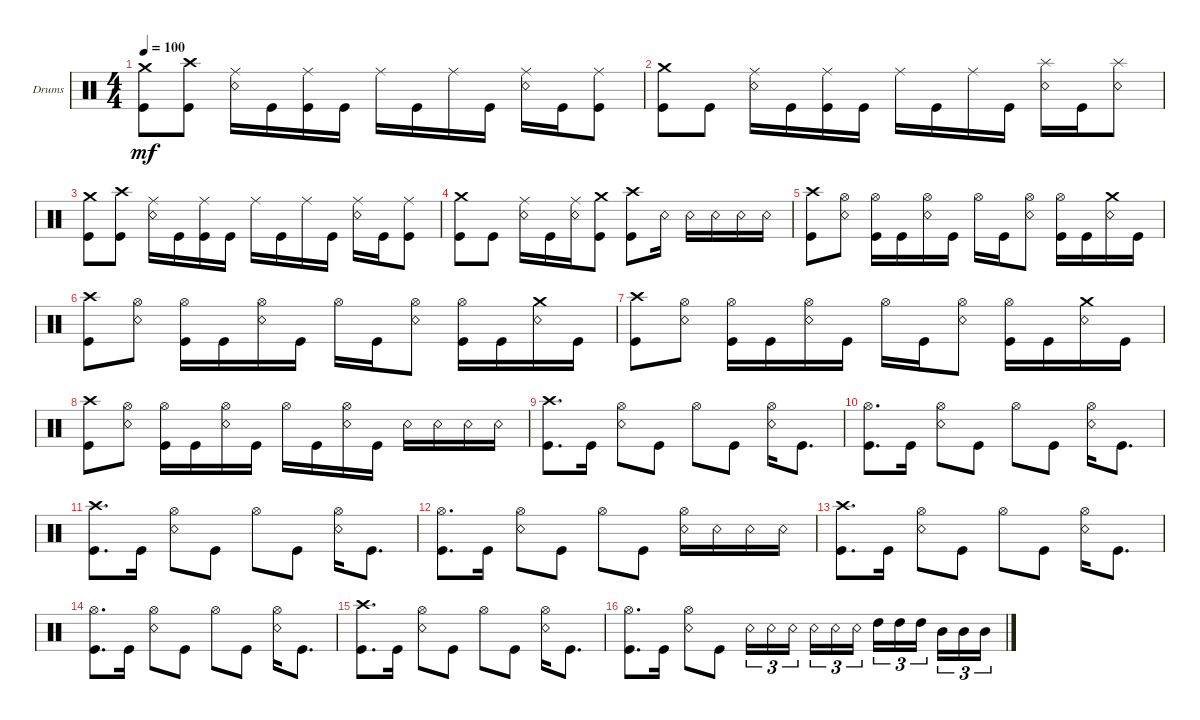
\defaultSystemsLayout 4
\bracketExtendMode groupsimilarinstruments
\firstSystemTrackNameOrientation horizontal
\otherSystemsTrackNameOrientation horizontal
\track ("Drumkit" "Drums") {instrument percussion}
\staff {score}
\articulation defaults
\ts (4 4)
\tempo 100
\clef neutral
\ks c
("Kick (hit)" "Crash medium (hit)").8{dy mf} ("Kick (hit)" "Crash high (hit)").8 ("Snare (rim shot)" "Ride (middle)").16 "Kick (hit)".16 ("Kick (hit)" "Ride (middle)").16 "Kick (hit)".16 "Ride (middle)".16 "Kick (hit)".16 "Ride (middle)".16 "Kick (hit)".16 ("Snare (rim shot)" "Ride (middle)").16 "Kick (hit)".16 ("Kick (hit)" "Ride (middle)").8 |
("Kick (hit)" "Crash medium (hit)").8 "Kick (hit)".8 ("Snare (rim shot)" "Ride (middle)").16 "Kick (hit)".16 ("Kick (hit)" "Ride (middle)").16 "Kick (hit)".16 "Ride (middle)".16 "Kick (hit)".16 "Ride (middle)".16 "Kick (hit)".16 ("Snare (rim shot)" "Splash (hit)").16 "Kick (hit)".16 ("Snare (rim shot)" "Splash (hit)").8 |
("Kick (hit)" "Crash medium (hit)").8 ("Kick (hit)" "Crash high (hit)").8 ("Snare (rim shot)" "Ride (middle)").16 "Kick (hit)".16 ("Kick (hit)" "Ride (middle)").16 "Kick (hit)".16 "Ride (middle)".16 "Kick (hit)".16 "Ride (middle)".16 "Kick (hit)".16 ("Snare (rim shot)" "Ride (middle)").16 "Kick (hit)".16 ("Kick (hit)" "Ride (middle)").8 |
("Kick (hit)" "Crash medium (hit)").8 "Kick (hit)".8 ("Snare (rim shot)" "Ride (middle)").16 "Kick (hit)".16 ("Snare (rim shot)" "Ride (middle)").16 ("Kick (hit)" "Crash medium (hit)").8 ("Kick (hit)" "Crash high (hit)").8 "Snare (rim shot)".16 "Snare (rim shot)".16 "Snare (rim shot)".16 "Snare (rim shot)".16 "Snare (rim shot)".16 |
("Kick (hit)" "Crash high (hit)").8 ("Snare (rim shot)" "Hi-Hat (open)").8 ("Kick (hit)" "Hi-Hat (open)").16 "Kick (hit)".16 ("Snare (rim shot)" "Hi-Hat (open)").16 "Kick (hit)".16 "Hi-Hat (open)".16 "Kick (hit)".16 ("Snare (rim shot)" "Hi-Hat (open)").8 ("Kick (hit)" "Hi-Hat (open)").16 "Kick (hit)".16 ("Snare (rim shot)" "Crash medium (hit)").16 "Kick (hit)".16 |
("Kick (hit)" "Crash high (hit)").8 ("Snare (rim shot)" "Hi-Hat (open)").8 ("Kick (hit)" "Hi-Hat (open)").16 "Kick (hit)".16 ("Snare (rim shot)" "Hi-Hat (open)").16 "Kick (hit)".16 "Hi-Hat (open)".16 "Kick (hit)".16 ("Snare (rim shot)" "Hi-Hat (open)").8 ("Kick (hit)" "Hi-Hat (open)").16 "Kick (hit)".16 ("Snare (rim shot)" "Crash medium (hit)").16 "Kick (hit)".16 |
("Kick (hit)" "Crash high (hit)").8 ("Snare (rim shot)" "Hi-Hat (open)").8 ("Kick (hit)" "Hi-Hat (open)").16 "Kick (hit)".16 ("Snare (rim shot)" "Hi-Hat (open)").16 "Kick (hit)".16 "Hi-Hat (open)".16 "Kick (hit)".16 ("Snare (rim shot)" "Hi-Hat (open)").8 ("Kick (hit)" "Hi-Hat (open)").16 "Kick (hit)".16 ("Snare (rim shot)" "Crash medium (hit)").16 "Kick (hit)".16 |
("Kick (hit)" "Crash high (hit)").8 ("Snare (rim shot)" "Hi-Hat (open)").8 ("Kick (hit)" "Hi-Hat (open)").16 "Kick (hit)".16 ("Snare (rim shot)" "Hi-Hat (open)").16 "Kick (hit)".16 "Hi-Hat (open)".16 "Kick (hit)".16 ("Snare (rim shot)" "Hi-Hat (open)").16 "Kick (hit)".16 "Snare (rim shot)".16 "Snare (rim shot)".16 "Snare (rim shot)".16 "Snare (rim shot)".16 |
("Kick (hit)" "Crash high (hit)").8{d} "Kick (hit)".16 ("Snare (rim shot)" "Hi-Hat (open)").8 "Kick (hit)".8 "Hi-Hat (open)".8 "Kick (hit)".8 ("Snare (rim shot)" "Hi-Hat (open)").16 "Kick (hit)".8{d} |
("Kick (hit)" "Hi-Hat (open)").8{d} "Kick (hit)".16 ("Snare (rim shot)" "Hi-Hat (open)").8 "Kick (hit)".8 "Hi-Hat (open)".8 "Kick (hit)".8 ("Snare (rim shot)" "Hi-Hat (open)").16 "Kick (hit)".8{d} |
("Kick (hit)" "Crash high (hit)").8{d} "Kick (hit)".16 ("Snare (rim shot)" "Hi-Hat (open)").8 "Kick (hit)".8 "Hi-Hat (open)".8 "Kick (hit)".8 ("Snare (rim shot)" "Hi-Hat (open)").16 "Kick (hit)".8{d} |
("Kick (hit)" "Hi-Hat (open)").8{d} "Kick (hit)".16 ("Snare (rim shot)" "Hi-Hat (open)").8 "Kick (hit)".8 "Hi-Hat (open)".8 "Kick (hit)".8 ("Snare (rim shot)" "Hi-Hat (open)").16 "Snare (rim shot)".16 "Snare (rim shot)".16 "Snare (rim shot)".16 |
("Kick (hit)" "Crash high (hit)").8{d} "Kick (hit)".16 ("Snare (rim shot)" "Hi-Hat (open)").8 "Kick (hit)".8 "Hi-Hat (open)".8 "Kick (hit)".8 ("Snare (rim shot)" "Hi-Hat (open)").16 "Kick (hit)".8{d} |
("Kick (hit)" "Hi-Hat (open)").8{d} "Kick (hit)".16 ("Snare (rim shot)" "Hi-Hat (open)").8 "Kick (hit)".8 "Hi-Hat (open)".8 "Kick (hit)".8 ("Snare (rim shot)" "Hi-Hat (open)").16 "Kick (hit)".8{d} |
("Kick (hit)" "Crash high (hit)").8{d} "Kick (hit)".16 ("Snare (rim shot)" "Hi-Hat (open)").8 "Kick (hit)".8 "Hi-Hat (open)".8 "Kick (hit)".8 ("Snare (rim shot)" "Hi-Hat (open)").16 "Kick (hit)".8{d} |
("Kick (hit)" "Hi-Hat (open)").8{d} "Kick (hit)".16 ("Snare (rim shot)" "Hi-Hat (open)").8 "Kick (hit)".8 "Snare (rim shot)".16{tu (3 2)} "Snare (rim shot)".16{tu (3 2)} "Snare (rim shot)".16{tu (3 2)} "Snare (rim shot)".16{tu (3 2)} "Snare (rim shot)".16{tu (3 2)} "Snare (rim shot)".16{tu (3 2)} "High Tom (hit)".16{tu (3 2)} "High Tom (hit)".16{tu (3 2)} "High Tom (hit)".16{tu (3 2)} "Mid Tom (hit)".16{tu (3 2)} "Mid Tom (hit)".16{tu (3 2)} "Mid Tom (hit)".16{tu (3 2)}
